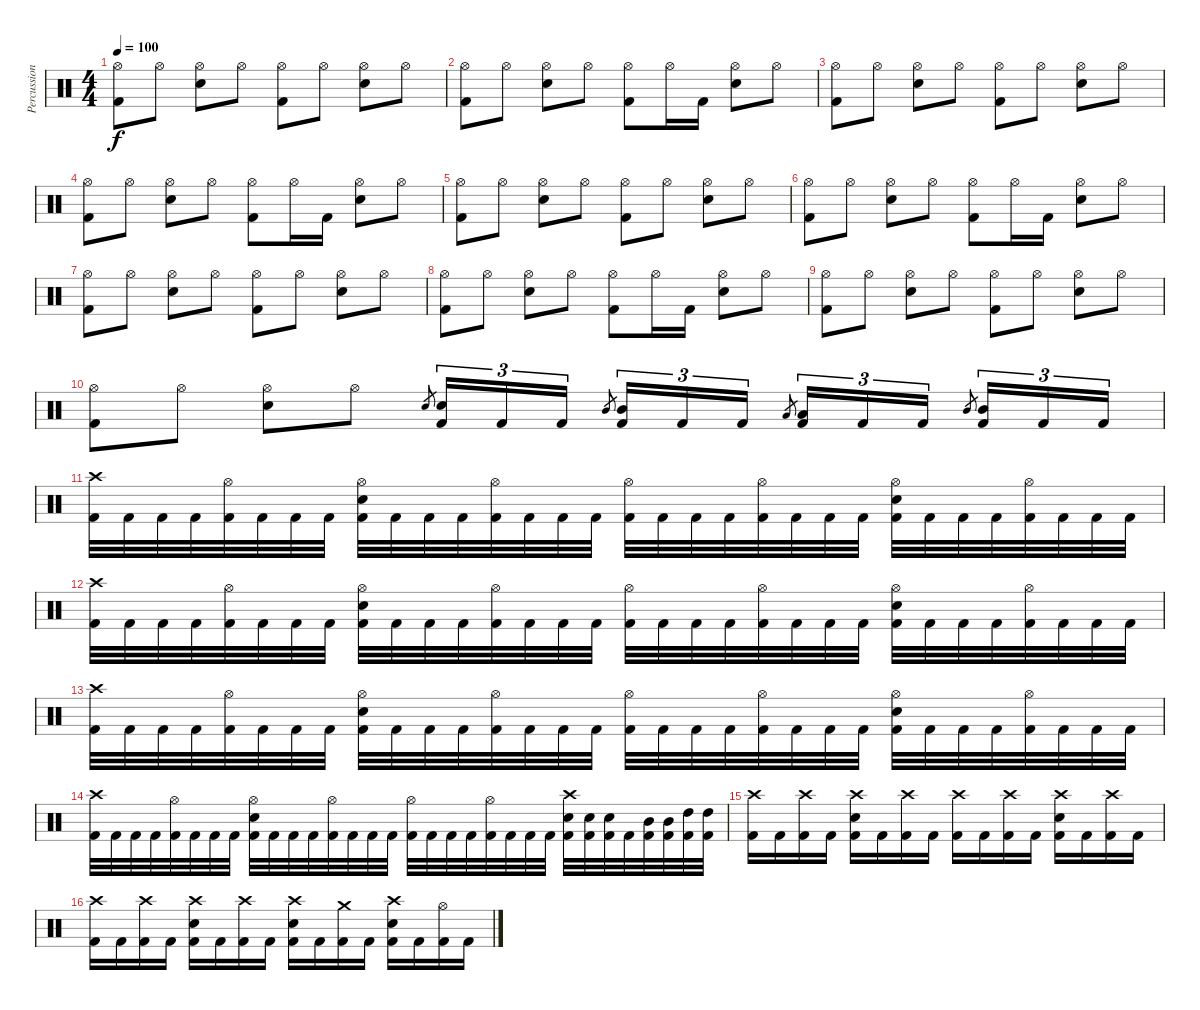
\track ("Percussion" "Percussion") {instrument percussion}
\staff {score}
\articulation defaults
\ts (4 4)
\tempo 100
\clef neutral
\ks c
("Hi-Hat (open)" "Kick (hit) 2").8{dy f} "Hi-Hat (open)".8 ("Hi-Hat (open)" "Electric Snare (hit)").8 "Hi-Hat (open)".8 ("Hi-Hat (open)" "Kick (hit) 2").8 "Hi-Hat (open)".8 ("Hi-Hat (open)" "Electric Snare (hit)").8 "Hi-Hat (open)".8 |
("Hi-Hat (open)" "Kick (hit) 2").8 "Hi-Hat (open)".8 ("Hi-Hat (open)" "Electric Snare (hit)").8 "Hi-Hat (open)".8 ("Hi-Hat (open)" "Kick (hit) 2").8 "Hi-Hat (open)".16 "Kick (hit) 2".16 ("Hi-Hat (open)" "Electric Snare (hit)").8 "Hi-Hat (open)".8 |
("Hi-Hat (open)" "Kick (hit) 2").8 "Hi-Hat (open)".8 ("Hi-Hat (open)" "Electric Snare (hit)").8 "Hi-Hat (open)".8 ("Hi-Hat (open)" "Kick (hit) 2").8 "Hi-Hat (open)".8 ("Hi-Hat (open)" "Electric Snare (hit)").8 "Hi-Hat (open)".8 |
("Hi-Hat (open)" "Kick (hit) 2").8 "Hi-Hat (open)".8 ("Hi-Hat (open)" "Electric Snare (hit)").8 "Hi-Hat (open)".8 ("Hi-Hat (open)" "Kick (hit) 2").8 "Hi-Hat (open)".16 "Kick (hit) 2".16 ("Hi-Hat (open)" "Electric Snare (hit)").8 "Hi-Hat (open)".8 |
("Hi-Hat (open)" "Kick (hit) 2").8 "Hi-Hat (open)".8 ("Hi-Hat (open)" "Electric Snare (hit)").8 "Hi-Hat (open)".8 ("Hi-Hat (open)" "Kick (hit) 2").8 "Hi-Hat (open)".8 ("Hi-Hat (open)" "Electric Snare (hit)").8 "Hi-Hat (open)".8 |
("Hi-Hat (open)" "Kick (hit) 2").8 "Hi-Hat (open)".8 ("Hi-Hat (open)" "Electric Snare (hit)").8 "Hi-Hat (open)".8 ("Hi-Hat (open)" "Kick (hit) 2").8 "Hi-Hat (open)".16 "Kick (hit) 2".16 ("Hi-Hat (open)" "Electric Snare (hit)").8 "Hi-Hat (open)".8 |
("Hi-Hat (open)" "Kick (hit) 2").8 "Hi-Hat (open)".8 ("Hi-Hat (open)" "Electric Snare (hit)").8 "Hi-Hat (open)".8 ("Hi-Hat (open)" "Kick (hit) 2").8 "Hi-Hat (open)".8 ("Hi-Hat (open)" "Electric Snare (hit)").8 "Hi-Hat (open)".8 |
("Hi-Hat (open)" "Kick (hit) 2").8 "Hi-Hat (open)".8 ("Hi-Hat (open)" "Electric Snare (hit)").8 "Hi-Hat (open)".8 ("Hi-Hat (open)" "Kick (hit) 2").8 "Hi-Hat (open)".16 "Kick (hit) 2".16 ("Hi-Hat (open)" "Electric Snare (hit)").8 "Hi-Hat (open)".8 |
("Hi-Hat (open)" "Kick (hit) 2").8 "Hi-Hat (open)".8 ("Hi-Hat (open)" "Electric Snare (hit)").8 "Hi-Hat (open)".8 ("Hi-Hat (open)" "Kick (hit) 2").8 "Hi-Hat (open)".8 ("Hi-Hat (open)" "Electric Snare (hit)").8 "Hi-Hat (open)".8 |
("Hi-Hat (open)" "Kick (hit) 2").8 "Hi-Hat (open)".8 ("Hi-Hat (open)" "Electric Snare (hit)").8 "Hi-Hat (open)".8 "Electric Snare (hit)".8{gr} ("Electric Snare (hit)" "Kick (hit) 2").16{tu (3 2)} "Kick (hit) 2".16{tu (3 2)} "Kick (hit) 2".16{tu (3 2)} "Mid Tom (hit)".8{gr beam splitsecondary} ("Mid Tom (hit)" "Kick (hit) 2").16{tu (3 2)} "Kick (hit) 2".16{tu (3 2)} "Kick (hit) 2".16{tu (3 2)} "Low Tom (hit)".8{gr} ("Low Tom (hit)" "Kick (hit) 2").16{tu (3 2)} "Kick (hit) 2".16{tu (3 2)} "Kick (hit) 2".16{tu (3 2)} "Mid Tom (hit)".8{gr beam splitsecondary} ("Mid Tom (hit)" "Kick (hit) 2").16{tu (3 2)} "Kick (hit) 2".16{tu (3 2)} "Kick (hit) 2".16{tu (3 2)} |
("Crash high (hit)" "Kick (hit) 2").32 "Kick (hit) 2".32 "Kick (hit) 2".32 "Kick (hit) 2".32 ("Hi-Hat (open)" "Kick (hit) 2").32 "Kick (hit) 2".32 "Kick (hit) 2".32 "Kick (hit) 2".32 ("Hi-Hat (open)" "Electric Snare (hit)" "Kick (hit) 2").32 "Kick (hit) 2".32 "Kick (hit) 2".32 "Kick (hit) 2".32 ("Hi-Hat (open)" "Kick (hit) 2").32 "Kick (hit) 2".32 "Kick (hit) 2".32 "Kick (hit) 2".32 ("Hi-Hat (open)" "Kick (hit) 2").32 "Kick (hit) 2".32 "Kick (hit) 2".32 "Kick (hit) 2".32 ("Hi-Hat (open)" "Kick (hit) 2").32 "Kick (hit) 2".32 "Kick (hit) 2".32 "Kick (hit) 2".32 ("Hi-Hat (open)" "Electric Snare (hit)" "Kick (hit) 2").32 "Kick (hit) 2".32 "Kick (hit) 2".32 "Kick (hit) 2".32 ("Hi-Hat (open)" "Kick (hit) 2").32 "Kick (hit) 2".32 "Kick (hit) 2".32 "Kick (hit) 2".32 |
("Crash high (hit)" "Kick (hit) 2").32 "Kick (hit) 2".32 "Kick (hit) 2".32 "Kick (hit) 2".32 ("Hi-Hat (open)" "Kick (hit) 2").32 "Kick (hit) 2".32 "Kick (hit) 2".32 "Kick (hit) 2".32 ("Hi-Hat (open)" "Electric Snare (hit)" "Kick (hit) 2").32 "Kick (hit) 2".32 "Kick (hit) 2".32 "Kick (hit) 2".32 ("Hi-Hat (open)" "Kick (hit) 2").32 "Kick (hit) 2".32 "Kick (hit) 2".32 "Kick (hit) 2".32 ("Hi-Hat (open)" "Kick (hit) 2").32 "Kick (hit) 2".32 "Kick (hit) 2".32 "Kick (hit) 2".32 ("Hi-Hat (open)" "Kick (hit) 2").32 "Kick (hit) 2".32 "Kick (hit) 2".32 "Kick (hit) 2".32 ("Hi-Hat (open)" "Electric Snare (hit)" "Kick (hit) 2").32 "Kick (hit) 2".32 "Kick (hit) 2".32 "Kick (hit) 2".32 ("Hi-Hat (open)" "Kick (hit) 2").32 "Kick (hit) 2".32 "Kick (hit) 2".32 "Kick (hit) 2".32 |
("Crash high (hit)" "Kick (hit) 2").32 "Kick (hit) 2".32 "Kick (hit) 2".32 "Kick (hit) 2".32 ("Hi-Hat (open)" "Kick (hit) 2").32 "Kick (hit) 2".32 "Kick (hit) 2".32 "Kick (hit) 2".32 ("Hi-Hat (open)" "Electric Snare (hit)" "Kick (hit) 2").32 "Kick (hit) 2".32 "Kick (hit) 2".32 "Kick (hit) 2".32 ("Hi-Hat (open)" "Kick (hit) 2").32 "Kick (hit) 2".32 "Kick (hit) 2".32 "Kick (hit) 2".32 ("Hi-Hat (open)" "Kick (hit) 2").32 "Kick (hit) 2".32 "Kick (hit) 2".32 "Kick (hit) 2".32 ("Hi-Hat (open)" "Kick (hit) 2").32 "Kick (hit) 2".32 "Kick (hit) 2".32 "Kick (hit) 2".32 ("Hi-Hat (open)" "Electric Snare (hit)" "Kick (hit) 2").32 "Kick (hit) 2".32 "Kick (hit) 2".32 "Kick (hit) 2".32 ("Hi-Hat (open)" "Kick (hit) 2").32 "Kick (hit) 2".32 "Kick (hit) 2".32 "Kick (hit) 2".32 |
("Crash high (hit)" "Kick (hit) 2").32 "Kick (hit) 2".32 "Kick (hit) 2".32 "Kick (hit) 2".32 ("Hi-Hat (open)" "Kick (hit) 2").32 "Kick (hit) 2".32 "Kick (hit) 2".32 "Kick (hit) 2".32 ("Hi-Hat (open)" "Electric Snare (hit)" "Kick (hit) 2").32 "Kick (hit) 2".32 "Kick (hit) 2".32 "Kick (hit) 2".32 ("Hi-Hat (open)" "Kick (hit) 2").32 "Kick (hit) 2".32 "Kick (hit) 2".32 "Kick (hit) 2".32 ("Hi-Hat (open)" "Kick (hit) 2").32 "Kick (hit) 2".32 "Kick (hit) 2".32 "Kick (hit) 2".32 ("Hi-Hat (open)" "Kick (hit) 2").32 "Kick (hit) 2".32 "Kick (hit) 2".32 "Kick (hit) 2".32 ("Crash high (hit)" "Electric Snare (hit)" "Kick (hit) 2").32 ("Electric Snare (hit)" "Kick (hit) 2").32 ("Electric Snare (hit)" "Kick (hit) 2").32 "Kick (hit) 2".32 ("Mid Tom (hit)" "Kick (hit) 2").32 ("Mid Tom (hit)" "Kick (hit) 2").32 ("High Tom (hit)" "Kick (hit) 2").32 ("High Tom (hit)" "Kick (hit) 2").32 |
("Crash high (hit)" "Kick (hit) 2").16 "Kick (hit) 2".16 ("Crash high (hit)" "Kick (hit) 2").16 "Kick (hit) 2".16 ("Crash high (hit)" "Electric Snare (hit)" "Kick (hit) 2").16 "Kick (hit) 2".16 ("Crash high (hit)" "Kick (hit) 2").16 "Kick (hit) 2".16 ("Crash high (hit)" "Kick (hit) 2").16 "Kick (hit) 2".16 ("Crash high (hit)" "Kick (hit) 2").16 "Kick (hit) 2".16 ("Crash high (hit)" "Electric Snare (hit)" "Kick (hit) 2").16 "Kick (hit) 2".16 ("Crash high (hit)" "Kick (hit) 2").16 "Kick (hit) 2".16 |
("Crash high (hit)" "Kick (hit) 2").16 "Kick (hit) 2".16 ("Crash high (hit)" "Kick (hit) 2").16 "Kick (hit) 2".16 ("Crash high (hit)" "Electric Snare (hit)" "Kick (hit) 2").16 "Kick (hit) 2".16 ("Crash high (hit)" "Kick (hit) 2").16 "Kick (hit) 2".16 ("Crash high (hit)" "Electric Snare (hit)" "Kick (hit) 2").16 "Kick (hit) 2".16 ("Crash medium (hit)" "Kick (hit) 2").16 "Kick (hit) 2".16 ("Crash high (hit)" "Electric Snare (hit)" "Kick (hit) 2").16 "Kick (hit) 2".16 ("Hi-Hat (open)" "Kick (hit) 2").16 "Kick (hit) 2".16
